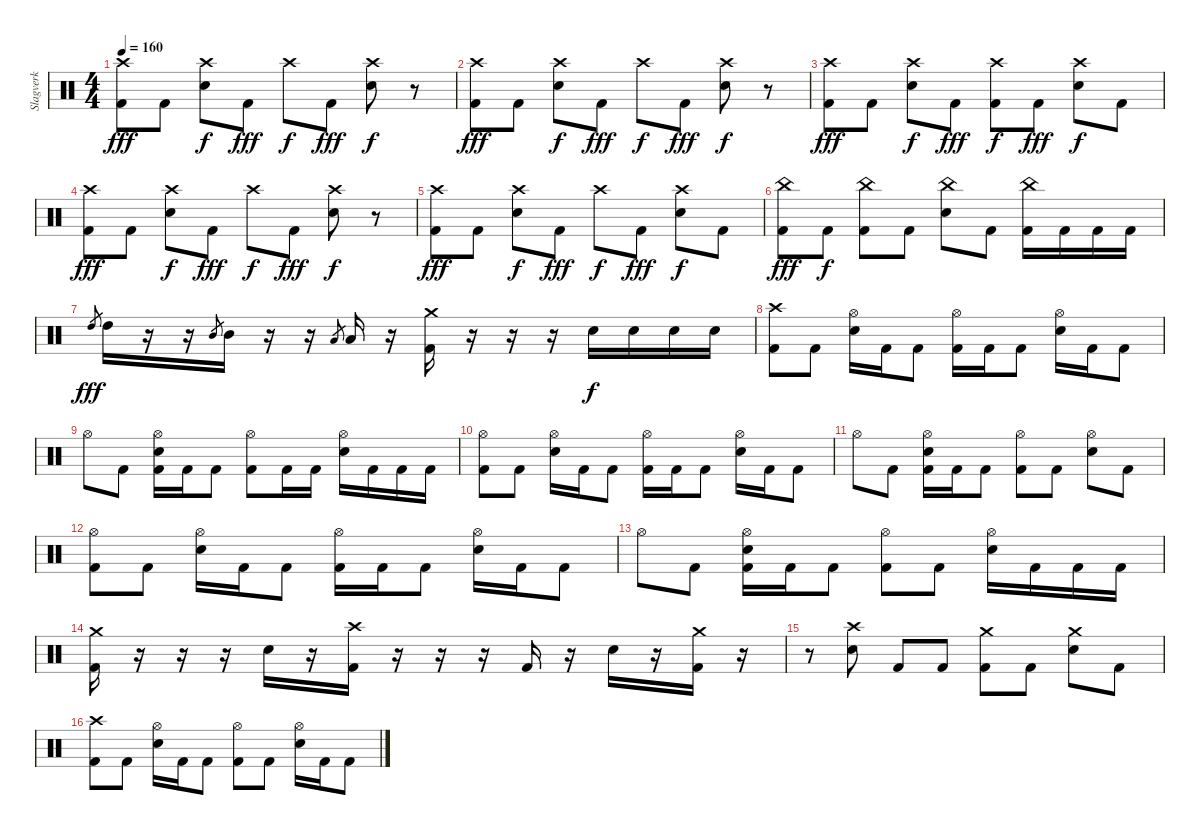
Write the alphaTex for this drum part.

\track ("Slagverk" "Slagverk") {instrument percussion}
\staff {score}
\articulation defaults
\ts (4 4)
\tempo 160
\clef neutral
\ks c
("Crash high (hit)" "Kick (hit) 2").8{dy fff} "Kick (hit) 2".8 ("Crash high (hit)" "Snare (hit) 2").8{dy f} "Kick (hit) 2".8{dy fff} "Crash high (hit)".8{dy f} "Kick (hit) 2".8{dy fff} ("Crash high (hit)" "Snare (hit) 2").8{dy f} r.8 |
("Crash high (hit)" "Kick (hit) 2").8{dy fff} "Kick (hit) 2".8 ("Crash high (hit)" "Snare (hit) 2").8{dy f} "Kick (hit) 2".8{dy fff} "Crash high (hit)".8{dy f} "Kick (hit) 2".8{dy fff} ("Crash high (hit)" "Snare (hit) 2").8{dy f} r.8 |
("Crash high (hit)" "Kick (hit) 2").8{dy fff} "Kick (hit) 2".8 ("Crash high (hit)" "Snare (hit) 2").8{dy f} "Kick (hit) 2".8{dy fff} ("Crash high (hit)" "Kick (hit) 2").8{dy f} "Kick (hit) 2".8{dy fff} ("Crash high (hit)" "Snare (hit) 2").8{dy f} "Kick (hit) 2".8 |
("Crash high (hit)" "Kick (hit) 2").8{dy fff} "Kick (hit) 2".8 ("Crash high (hit)" "Snare (hit) 2").8{dy f} "Kick (hit) 2".8{dy fff} "Crash high (hit)".8{dy f} "Kick (hit) 2".8{dy fff} ("Crash high (hit)" "Snare (hit) 2").8{dy f} r.8 |
("Crash high (hit)" "Kick (hit) 2").8{dy fff} "Kick (hit) 2".8 ("Crash high (hit)" "Snare (hit) 2").8{dy f} "Kick (hit) 2".8{dy fff} "Crash high (hit)".8{dy f} "Kick (hit) 2".8{dy fff} ("Crash high (hit)" "Snare (hit) 2").8{dy f} "Kick (hit) 2".8 |
("China (hit)" "Kick (hit) 2").8{dy fff} "Kick (hit) 2".8{dy f} ("China (hit)" "Kick (hit) 2").8 "Kick (hit) 2".8 ("China (hit)" "Snare (hit) 2").8 "Kick (hit) 2".8 ("China (hit)" "Kick (hit) 2").16 "Kick (hit) 2".16 "Kick (hit) 2".16 "Kick (hit) 2".16 |
"High Tom (hit)".8{gr dy fff} "High Tom (hit)".16 r.16 r.16 "Mid Tom (hit)".8{gr} "Mid Tom (hit)".16 r.16 r.16 "Low Tom (hit)".8{gr} "Low Tom (hit)".16 r.16 ("Crash medium (hit)" "Kick (hit) 2").16 r.16 r.16 r.16 "Snare (hit) 2".16{dy f} "Snare (hit) 2".16 "Snare (hit) 2".16 "Snare (hit) 2".16 |
("Crash high (hit)" "Kick (hit) 2").8 "Kick (hit) 2".8 ("Hi-Hat (open)" "Snare (hit) 2").16 "Kick (hit) 2".16 "Kick (hit) 2".8 ("Hi-Hat (open)" "Kick (hit) 2").16 "Kick (hit) 2".16 "Kick (hit) 2".8 ("Hi-Hat (open)" "Snare (hit) 2").16 "Kick (hit) 2".16 "Kick (hit) 2".8 |
"Hi-Hat (open)".8 "Kick (hit) 2".8 ("Hi-Hat (open)" "Snare (hit) 2" "Kick (hit) 2").16 "Kick (hit) 2".16 "Kick (hit) 2".8 ("Hi-Hat (open)" "Kick (hit) 2").8 "Kick (hit) 2".16 "Kick (hit) 2".16 ("Hi-Hat (open)" "Snare (hit) 2").16 "Kick (hit) 2".16 "Kick (hit) 2".16 "Kick (hit) 2".16 |
("Hi-Hat (open)" "Kick (hit) 2").8 "Kick (hit) 2".8 ("Hi-Hat (open)" "Snare (hit) 2").16 "Kick (hit) 2".16 "Kick (hit) 2".8 ("Hi-Hat (open)" "Kick (hit) 2").16 "Kick (hit) 2".16 "Kick (hit) 2".8 ("Hi-Hat (open)" "Snare (hit) 2").16 "Kick (hit) 2".16 "Kick (hit) 2".8 |
"Hi-Hat (open)".8 "Kick (hit) 2".8 ("Hi-Hat (open)" "Snare (hit) 2" "Kick (hit) 2").16 "Kick (hit) 2".16 "Kick (hit) 2".8 ("Hi-Hat (open)" "Kick (hit) 2").8 "Kick (hit) 2".8 ("Hi-Hat (open)" "Snare (hit) 2").8 "Kick (hit) 2".8 |
("Hi-Hat (open)" "Kick (hit) 2").8 "Kick (hit) 2".8 ("Hi-Hat (open)" "Snare (hit) 2").16 "Kick (hit) 2".16 "Kick (hit) 2".8 ("Hi-Hat (open)" "Kick (hit) 2").16 "Kick (hit) 2".16 "Kick (hit) 2".8 ("Hi-Hat (open)" "Snare (hit) 2").16 "Kick (hit) 2".16 "Kick (hit) 2".8 |
"Hi-Hat (open)".8 "Kick (hit) 2".8 ("Hi-Hat (open)" "Snare (hit) 2" "Kick (hit) 2").16 "Kick (hit) 2".16 "Kick (hit) 2".8 ("Hi-Hat (open)" "Kick (hit) 2").8 "Kick (hit) 2".8 ("Hi-Hat (open)" "Snare (hit) 2").16 "Kick (hit) 2".16 "Kick (hit) 2".16 "Kick (hit) 2".16 |
("Crash medium (hit)" "Kick (hit) 2").16 r.16 r.16 r.16 "Snare (hit) 2".16 r.16 ("Crash high (hit)" "Kick (hit) 2").16 r.16 r.16 r.16 "Kick (hit) 2".16 r.16 "Snare (hit) 2".16 r.16 ("Crash medium (hit)" "Kick (hit) 2").16 r.16 |
r.8 ("Crash high (hit)" "Snare (hit) 2").8 "Kick (hit) 2".8 "Kick (hit) 2".8 ("Crash medium (hit)" "Kick (hit) 2").8 "Kick (hit) 2".8 ("Crash medium (hit)" "Snare (hit) 2").8 "Kick (hit) 2".8 |
("Crash high (hit)" "Kick (hit) 2").8 "Kick (hit) 2".8 ("Hi-Hat (open)" "Snare (hit) 2").16 "Kick (hit) 2".16 "Kick (hit) 2".8 ("Hi-Hat (open)" "Kick (hit) 2").8 "Kick (hit) 2".8 ("Hi-Hat (open)" "Snare (hit) 2").16 "Kick (hit) 2".16 "Kick (hit) 2".8
